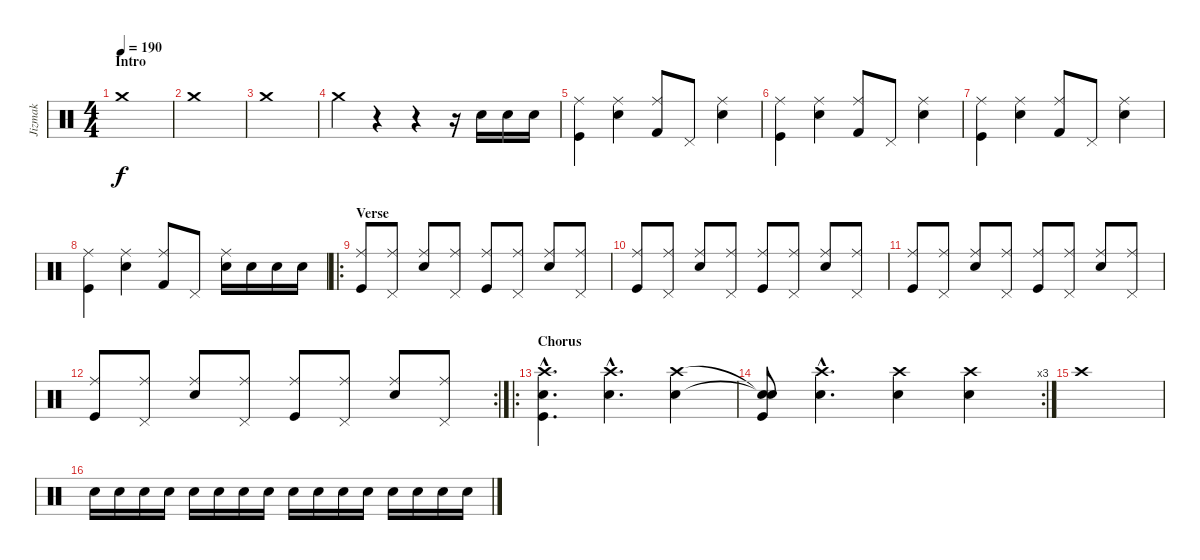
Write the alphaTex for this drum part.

\track ("Jizmak" "Jizmak") {instrument percussion}
\staff {score}
\articulation defaults
\ts (4 4)
\section ("" "Intro")
\tempo 190
\clef neutral
\ks c "Crash medium (hit)".1{dy f}
|
"Crash medium (hit)".1 |
"Crash medium (hit)".1 |
"Crash medium (hit)".4 r.4 r.4 r.16 "Snare (hit) 2".16 "Snare (hit) 2".16 "Snare (hit) 2".16 |
("Ride (middle)" "Kick (hit)").4 ("Ride (middle)" "Snare (hit) 2").4 ("Ride (middle)" "Kick (hit) 2").8 "Pedal Hi-Hat (hit)".8 ("Ride (middle)" "Snare (hit) 2").4 |
("Ride (middle)" "Kick (hit)").4 ("Ride (middle)" "Snare (hit) 2").4 ("Ride (middle)" "Kick (hit) 2").8 "Pedal Hi-Hat (hit)".8 ("Ride (middle)" "Snare (hit) 2").4 |
("Ride (middle)" "Kick (hit)").4 ("Ride (middle)" "Snare (hit) 2").4 ("Ride (middle)" "Kick (hit) 2").8 "Pedal Hi-Hat (hit)".8 ("Ride (middle)" "Snare (hit) 2").4 |
("Ride (middle)" "Kick (hit)").4 ("Ride (middle)" "Snare (hit) 2").4 ("Ride (middle)" "Kick (hit) 2").8 "Pedal Hi-Hat (hit)".8 ("Ride (middle)" "Snare (hit) 2").16 "Snare (hit) 2".16 "Snare (hit) 2".16 "Snare (hit) 2".16 |
\ro
\section ("" "Verse")
("Ride (middle)" "Kick (hit)").8 ("Ride (middle)" "Pedal Hi-Hat (hit)").8 ("Ride (middle)" "Snare (hit) 2").8 ("Ride (middle)" "Pedal Hi-Hat (hit)").8 ("Ride (middle)" "Kick (hit)").8 ("Ride (middle)" "Pedal Hi-Hat (hit)").8 ("Ride (middle)" "Snare (hit) 2").8 ("Ride (middle)" "Pedal Hi-Hat (hit)").8 |
("Ride (middle)" "Kick (hit)").8 ("Ride (middle)" "Pedal Hi-Hat (hit)").8 ("Ride (middle)" "Snare (hit) 2").8 ("Ride (middle)" "Pedal Hi-Hat (hit)").8 ("Ride (middle)" "Kick (hit)").8 ("Ride (middle)" "Pedal Hi-Hat (hit)").8 ("Ride (middle)" "Snare (hit) 2").8 ("Ride (middle)" "Pedal Hi-Hat (hit)").8 |
("Ride (middle)" "Kick (hit)").8 ("Ride (middle)" "Pedal Hi-Hat (hit)").8 ("Ride (middle)" "Snare (hit) 2").8 ("Ride (middle)" "Pedal Hi-Hat (hit)").8 ("Ride (middle)" "Kick (hit)").8 ("Ride (middle)" "Pedal Hi-Hat (hit)").8 ("Ride (middle)" "Snare (hit) 2").8 ("Ride (middle)" "Pedal Hi-Hat (hit)").8 |
\rc 2
("Ride (middle)" "Kick (hit)").8 ("Ride (middle)" "Pedal Hi-Hat (hit)").8 ("Ride (middle)" "Snare (hit) 2").8 ("Ride (middle)" "Pedal Hi-Hat (hit)").8 ("Ride (middle)" "Kick (hit)").8 ("Ride (middle)" "Pedal Hi-Hat (hit)").8 ("Ride (middle)" "Snare (hit) 2").8 ("Ride (middle)" "Pedal Hi-Hat (hit)").8 |
\ro
\section ("" "Chorus")
("Crash high (hit)"{hac} "Snare (hit) 2"{hac} "Kick (hit)"{hac}).4{d} ("Crash high (hit)"{hac} "Snare (hit) 2"{hac}).4{d} ("Crash high (hit)" "Snare (hit) 2").4 |
\rc 3
("Snare (hit)"{t} "Snare (hit) 2"{t} "Kick (hit)").8 ("Crash high (hit)"{hac} "Snare (hit) 2"{hac}).4{d} ("Crash high (hit)" "Snare (hit) 2").4 ("Crash high (hit)" "Snare (hit) 2").4 |
"Crash high (hit)".1 |
"Snare (hit) 2".16 "Snare (hit) 2".16 "Snare (hit) 2".16 "Snare (hit) 2".16 "Snare (hit) 2".16 "Snare (hit) 2".16 "Snare (hit) 2".16 "Snare (hit) 2".16 "Snare (hit) 2".16 "Snare (hit) 2".16 "Snare (hit) 2".16 "Snare (hit) 2".16 "Snare (hit) 2".16 "Snare (hit) 2".16 "Snare (hit) 2".16 "Snare (hit) 2".16
